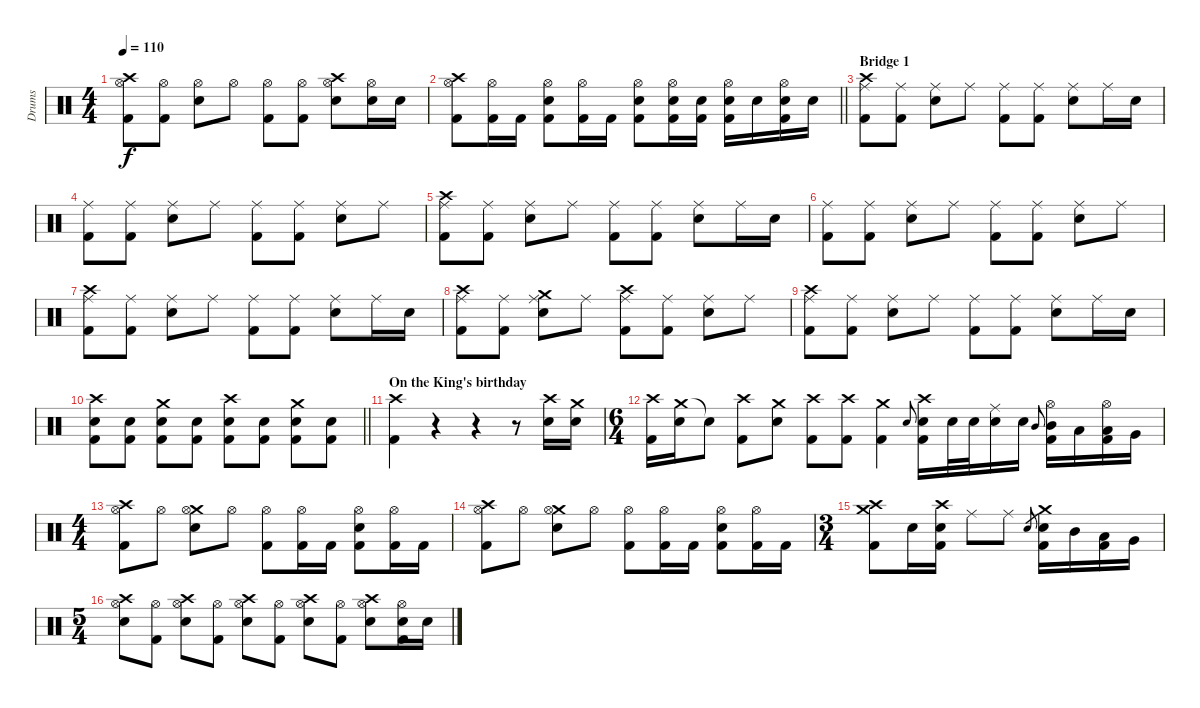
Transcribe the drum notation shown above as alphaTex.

\track ("Drums" "Drums") {instrument percussion}
\staff {score}
\articulation defaults
\ts (4 4)
\tempo 110
\clef neutral
\ks c
("Crash high (hit)" "Hi-Hat (open)" "Kick (hit) 2").8{dy f} ("Hi-Hat (open)" "Kick (hit) 2").8 ("Hi-Hat (open)" "Snare (hit) 2").8 "Hi-Hat (open)".8 ("Hi-Hat (open)" "Kick (hit) 2").8 ("Hi-Hat (open)" "Kick (hit) 2").8 ("Crash high (hit)" "Hi-Hat (open)" "Snare (hit) 2").8 ("Hi-Hat (open)" "Snare (hit) 2").16 "Snare (hit) 2".16 |
\barLineRight lightlight
("Crash high (hit)" "Hi-Hat (open)" "Kick (hit) 2").8 ("Hi-Hat (open)" "Kick (hit) 2").16 "Kick (hit) 2".16 ("Hi-Hat (open)" "Snare (hit) 2" "Kick (hit) 2").8 ("Hi-Hat (open)" "Kick (hit) 2").16 "Kick (hit) 2".16 ("Hi-Hat (open)" "Snare (hit) 2" "Kick (hit) 2").8 ("Hi-Hat (open)" "Snare (hit) 2" "Kick (hit) 2").16 ("Snare (hit) 2" "Kick (hit) 2").16 ("Hi-Hat (open)" "Snare (hit) 2" "Kick (hit) 2").16 "Snare (hit) 2".16 ("Hi-Hat (open)" "Snare (hit) 2" "Kick (hit) 2").16 "Snare (hit) 2".16 |
\section ("" "Bridge 1")
("Crash high (hit)" "Ride (middle)" "Kick (hit) 2").8 ("Ride (middle)" "Kick (hit) 2").8 ("Ride (middle)" "Snare (hit) 2").8 "Ride (middle)".8 ("Ride (middle)" "Kick (hit) 2").8 ("Ride (middle)" "Kick (hit) 2").8 ("Ride (middle)" "Snare (hit) 2").8 "Ride (middle)".16 "Snare (hit) 2".16 |
("Ride (middle)" "Kick (hit) 2").8 ("Ride (middle)" "Kick (hit) 2").8 ("Ride (middle)" "Snare (hit) 2").8 "Ride (middle)".8 ("Ride (middle)" "Kick (hit) 2").8 ("Ride (middle)" "Kick (hit) 2").8 ("Ride (middle)" "Snare (hit) 2").8 "Ride (middle)".8 |
("Crash high (hit)" "Ride (middle)" "Kick (hit) 2").8 ("Ride (middle)" "Kick (hit) 2").8 ("Ride (middle)" "Snare (hit) 2").8 "Ride (middle)".8 ("Ride (middle)" "Kick (hit) 2").8 ("Ride (middle)" "Kick (hit) 2").8 ("Ride (middle)" "Snare (hit) 2").8 "Ride (middle)".16 "Snare (hit) 2".16 |
("Ride (middle)" "Kick (hit) 2").8 ("Ride (middle)" "Kick (hit) 2").8 ("Ride (middle)" "Snare (hit) 2").8 "Ride (middle)".8 ("Ride (middle)" "Kick (hit) 2").8 ("Ride (middle)" "Kick (hit) 2").8 ("Ride (middle)" "Snare (hit) 2").8 "Ride (middle)".8 |
("Crash high (hit)" "Ride (middle)" "Kick (hit) 2").8 ("Ride (middle)" "Kick (hit) 2").8 ("Ride (middle)" "Snare (hit) 2").8 "Ride (middle)".8 ("Ride (middle)" "Kick (hit) 2").8 ("Ride (middle)" "Kick (hit) 2").8 ("Ride (middle)" "Snare (hit) 2").8 "Ride (middle)".16 "Snare (hit) 2".16 |
("Crash high (hit)" "Ride (middle)" "Kick (hit) 2").8 ("Ride (middle)" "Kick (hit) 2").8 ("Crash medium (hit)" "Ride (middle)" "Snare (hit) 2").8 "Ride (middle)".8 ("Crash high (hit)" "Ride (middle)" "Kick (hit) 2").8 ("Ride (middle)" "Kick (hit) 2").8 ("Ride (middle)" "Snare (hit) 2").8 "Ride (middle)".8 |
("Crash high (hit)" "Ride (middle)" "Kick (hit) 2").8 ("Ride (middle)" "Kick (hit) 2").8 ("Ride (middle)" "Snare (hit) 2").8 "Ride (middle)".8 ("Ride (middle)" "Kick (hit) 2").8 ("Ride (middle)" "Kick (hit) 2").8 ("Ride (middle)" "Snare (hit) 2").8 "Ride (middle)".16 "Snare (hit) 2".16 |
\barLineRight lightlight
("Crash high (hit)" "Snare (hit) 2" "Kick (hit) 2").8 ("Snare (hit) 2" "Kick (hit) 2").8 ("Crash medium (hit)" "Snare (hit) 2" "Kick (hit) 2").8 ("Snare (hit) 2" "Kick (hit) 2").8 ("Crash high (hit)" "Snare (hit) 2" "Kick (hit) 2").8 ("Snare (hit) 2" "Kick (hit) 2").8 ("Crash medium (hit)" "Snare (hit) 2" "Kick (hit) 2").8 ("Snare (hit) 2" "Kick (hit) 2").8 |
\section ("" "On the King's birthday")
("Crash high (hit)" "Kick (hit) 2").4 r.4 r.4 r.8 ("Crash high (hit)" "Snare (hit) 2").16 ("Crash medium (hit)" "Snare (hit) 2").16 |
\ts (6 4)
("Crash high (hit)" "Kick (hit) 2").16 ("Crash medium (hit)" "Snare (hit) 2").16 "Snare (hit)"{t}.8 ("Crash high (hit)" "Kick (hit) 2").8 ("Crash medium (hit)" "Snare (hit) 2").8 ("Crash high (hit)" "Kick (hit) 2").8 ("Crash high (hit)" "Kick (hit) 2").8 ("Crash medium (hit)" "Kick (hit) 2").4 "Snare (hit) 2".8{gr onbeat} ("Crash high (hit)" "Snare (hit) 2" "Kick (hit) 2").16 "Snare (hit) 2".32 "Snare (hit) 2".32 ("Ride (middle)" "Snare (hit) 2").16 "Snare (hit) 2".16 "Mid Tom (hit)".8{gr onbeat} ("Hi-Hat (open)" "Mid Tom (hit)" "Kick (hit) 2").16 "Low Tom (hit)".16 ("Hi-Hat (open)" "Low Tom (hit)" "Kick (hit) 2").16 "Very Low Tom (hit)".16 |
\ts (4 4)
("Crash high (hit)" "Hi-Hat (open)" "Kick (hit) 2").8 "Hi-Hat (open)".8 ("Crash medium (hit)" "Hi-Hat (open)" "Snare (hit) 2").8 "Hi-Hat (open)".8 ("Hi-Hat (open)" "Kick (hit) 2").8 ("Hi-Hat (open)" "Kick (hit) 2").16 "Kick (hit) 2".16 ("Hi-Hat (open)" "Snare (hit) 2" "Kick (hit) 2").8 ("Hi-Hat (open)" "Kick (hit) 2").16 "Kick (hit) 2".16 |
("Crash high (hit)" "Hi-Hat (open)" "Kick (hit) 2").8 "Hi-Hat (open)".8 ("Crash medium (hit)" "Hi-Hat (open)" "Snare (hit) 2").8 "Hi-Hat (open)".8 ("Hi-Hat (open)" "Kick (hit) 2").8 ("Hi-Hat (open)" "Kick (hit) 2").16 "Kick (hit) 2".16 ("Hi-Hat (open)" "Snare (hit) 2" "Kick (hit) 2").8 ("Hi-Hat (open)" "Kick (hit) 2").16 "Kick (hit) 2".16 |
\ts (3 4)
("Crash medium (hit)" "Crash high (hit)" "Kick (hit) 2").8 "Snare (hit) 2".16 ("Crash high (hit)" "Snare (hit) 2" "Kick (hit) 2").16 "Ride (middle)".8 "Ride (middle)".8 "Snare (hit) 2".8{gr} ("Crash medium (hit)" "Snare (hit) 2" "Kick (hit) 2").16 "Mid Tom (hit)".16 ("Low Tom (hit)" "Kick (hit) 2").16 "Very Low Tom (hit)".16 |
\ts (5 4)
("Crash high (hit)" "Hi-Hat (open)" "Snare (hit) 2").8 ("Hi-Hat (open)" "Kick (hit) 2").8 ("Crash high (hit)" "Hi-Hat (open)" "Snare (hit) 2").8 ("Hi-Hat (open)" "Kick (hit) 2").8 ("Crash high (hit)" "Hi-Hat (open)" "Snare (hit) 2").8 ("Hi-Hat (open)" "Kick (hit) 2").8 ("Crash high (hit)" "Hi-Hat (open)" "Snare (hit) 2").8 ("Hi-Hat (open)" "Kick (hit) 2").8 ("Crash high (hit)" "Hi-Hat (open)" "Snare (hit) 2").8 ("Hi-Hat (open)" "Snare (hit) 2" "Kick (hit) 2").16 "Snare (hit) 2".16
